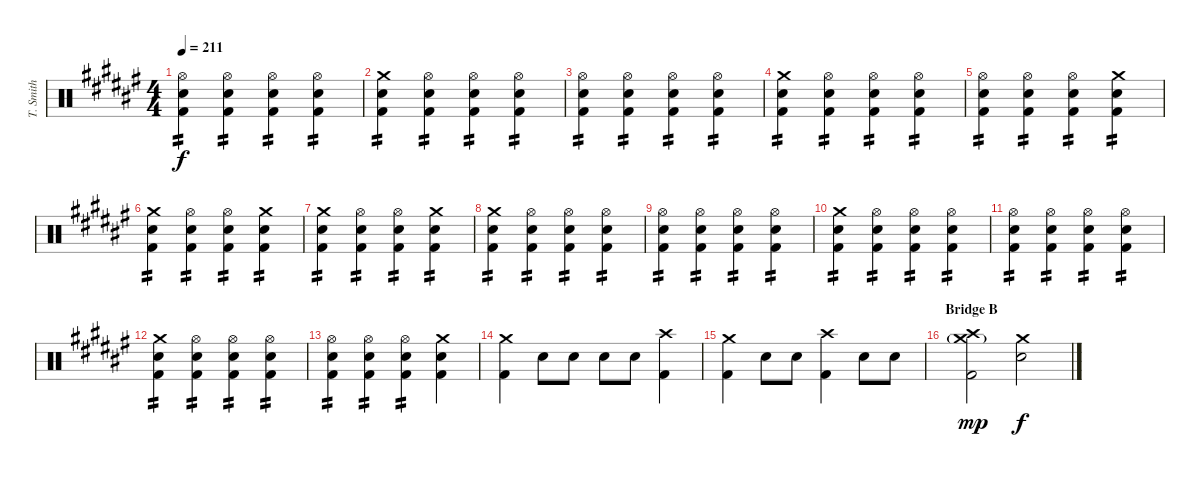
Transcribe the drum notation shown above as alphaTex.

\track ("T. Smith" "T. Smith") {instrument percussion}
\staff {score}
\articulation defaults
\ts (4 4)
\tempo 211
\clef neutral
\ks d#minor
("Hi-Hat (open)" "Electric Snare (hit)" "Kick (hit) 2").4{tp 2 dy f} ("Hi-Hat (open)" "Electric Snare (hit)" "Kick (hit) 2").4{tp 2} ("Hi-Hat (open)" "Electric Snare (hit)" "Kick (hit) 2").4{tp 2} ("Hi-Hat (open)" "Electric Snare (hit)" "Kick (hit) 2").4{tp 2} |
("Crash medium (hit)" "Electric Snare (hit)" "Kick (hit) 2").4{tp 2} ("Hi-Hat (open)" "Electric Snare (hit)" "Kick (hit) 2").4{tp 2} ("Hi-Hat (open)" "Electric Snare (hit)" "Kick (hit) 2").4{tp 2} ("Hi-Hat (open)" "Electric Snare (hit)" "Kick (hit) 2").4{tp 2} |
("Hi-Hat (open)" "Electric Snare (hit)" "Kick (hit) 2").4{tp 2} ("Hi-Hat (open)" "Electric Snare (hit)" "Kick (hit) 2").4{tp 2} ("Hi-Hat (open)" "Electric Snare (hit)" "Kick (hit) 2").4{tp 2} ("Hi-Hat (open)" "Electric Snare (hit)" "Kick (hit) 2").4{tp 2} |
("Crash medium (hit)" "Electric Snare (hit)" "Kick (hit) 2").4{tp 2} ("Hi-Hat (open)" "Electric Snare (hit)" "Kick (hit) 2").4{tp 2} ("Hi-Hat (open)" "Electric Snare (hit)" "Kick (hit) 2").4{tp 2} ("Hi-Hat (open)" "Electric Snare (hit)" "Kick (hit) 2").4{tp 2} |
("Hi-Hat (open)" "Electric Snare (hit)" "Kick (hit) 2").4{tp 2} ("Hi-Hat (open)" "Electric Snare (hit)" "Kick (hit) 2").4{tp 2} ("Hi-Hat (open)" "Electric Snare (hit)" "Kick (hit) 2").4{tp 2} ("Crash medium (hit)" "Electric Snare (hit)" "Kick (hit) 2").4{tp 2} |
("Crash medium (hit)" "Electric Snare (hit)" "Kick (hit) 2").4{tp 2} ("Hi-Hat (open)" "Electric Snare (hit)" "Kick (hit) 2").4{tp 2} ("Hi-Hat (open)" "Electric Snare (hit)" "Kick (hit) 2").4{tp 2} ("Crash medium (hit)" "Electric Snare (hit)" "Kick (hit) 2").4{tp 2} |
("Crash medium (hit)" "Electric Snare (hit)" "Kick (hit) 2").4{tp 2} ("Hi-Hat (open)" "Electric Snare (hit)" "Kick (hit) 2").4{tp 2} ("Hi-Hat (open)" "Electric Snare (hit)" "Kick (hit) 2").4{tp 2} ("Crash medium (hit)" "Electric Snare (hit)" "Kick (hit) 2").4{tp 2} |
("Crash medium (hit)" "Electric Snare (hit)" "Kick (hit) 2").4{tp 2} ("Hi-Hat (open)" "Electric Snare (hit)" "Kick (hit) 2").4{tp 2} ("Hi-Hat (open)" "Electric Snare (hit)" "Kick (hit) 2").4{tp 2} ("Hi-Hat (open)" "Electric Snare (hit)" "Kick (hit) 2").4{tp 2} |
("Hi-Hat (open)" "Electric Snare (hit)" "Kick (hit) 2").4{tp 2} ("Hi-Hat (open)" "Electric Snare (hit)" "Kick (hit) 2").4{tp 2} ("Hi-Hat (open)" "Electric Snare (hit)" "Kick (hit) 2").4{tp 2} ("Hi-Hat (open)" "Electric Snare (hit)" "Kick (hit) 2").4{tp 2} |
("Crash medium (hit)" "Electric Snare (hit)" "Kick (hit) 2").4{tp 2} ("Hi-Hat (open)" "Electric Snare (hit)" "Kick (hit) 2").4{tp 2} ("Hi-Hat (open)" "Electric Snare (hit)" "Kick (hit) 2").4{tp 2} ("Hi-Hat (open)" "Electric Snare (hit)" "Kick (hit) 2").4{tp 2} |
("Hi-Hat (open)" "Electric Snare (hit)" "Kick (hit) 2").4{tp 2} ("Hi-Hat (open)" "Electric Snare (hit)" "Kick (hit) 2").4{tp 2} ("Hi-Hat (open)" "Electric Snare (hit)" "Kick (hit) 2").4{tp 2} ("Hi-Hat (open)" "Electric Snare (hit)" "Kick (hit) 2").4{tp 2} |
("Crash medium (hit)" "Electric Snare (hit)" "Kick (hit) 2").4{tp 2} ("Hi-Hat (open)" "Electric Snare (hit)" "Kick (hit) 2").4{tp 2} ("Hi-Hat (open)" "Electric Snare (hit)" "Kick (hit) 2").4{tp 2} ("Hi-Hat (open)" "Electric Snare (hit)" "Kick (hit) 2").4{tp 2} |
("Hi-Hat (open)" "Electric Snare (hit)" "Kick (hit) 2").4{tp 2} ("Hi-Hat (open)" "Electric Snare (hit)" "Kick (hit) 2").4{tp 2} ("Hi-Hat (open)" "Electric Snare (hit)" "Kick (hit) 2").4{tp 2} ("Crash medium (hit)" "Electric Snare (hit)" "Kick (hit) 2").4 |
("Crash medium (hit)" "Kick (hit) 2").4 "Electric Snare (hit)".8 "Electric Snare (hit)".8 "Electric Snare (hit)".8 "Electric Snare (hit)".8 ("Crash high (hit)" "Kick (hit) 2").4 |
("Crash medium (hit)" "Kick (hit) 2").4 "Electric Snare (hit)".8 "Electric Snare (hit)".8 ("Crash high (hit)" "Kick (hit) 2").4 "Electric Snare (hit)".8 "Electric Snare (hit)".8 |
\section ("" "Bridge B")
("Crash medium (hit)"{g} "Crash high (hit)" "Kick (hit) 2").2{dy mp} ("Crash medium (hit)" "Electric Snare (hit)").2{dy f}
